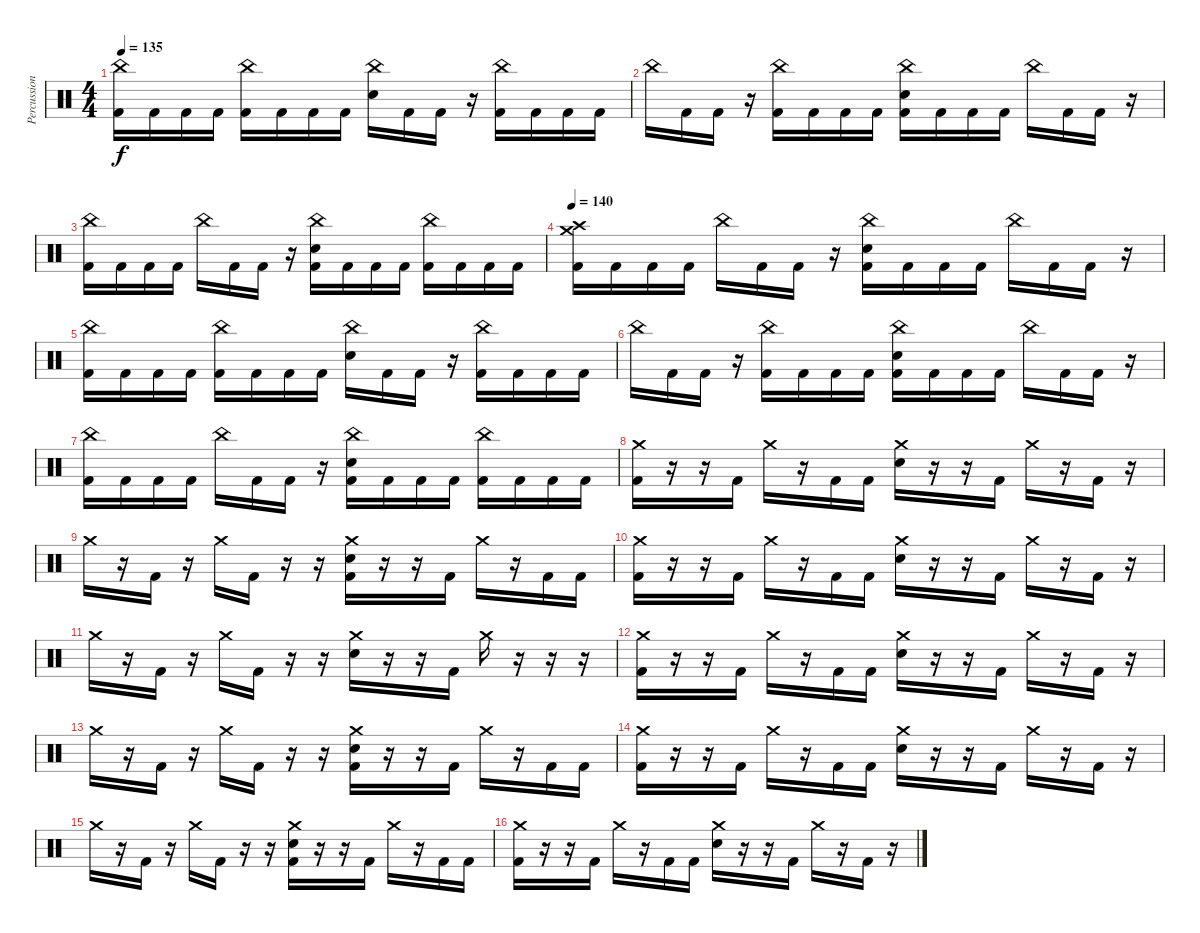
\track ("Percussion" "Percussion") {instrument percussion}
\staff {score}
\articulation defaults
\ts (4 4)
\tempo 135
\clef neutral
\ks c
("China (hit)" "Kick (hit) 2").16{dy f} "Kick (hit) 2".16 "Kick (hit) 2".16 "Kick (hit) 2".16 ("China (hit)" "Kick (hit) 2").16 "Kick (hit) 2".16 "Kick (hit) 2".16 "Kick (hit) 2".16 ("China (hit)" "Electric Snare (hit)").16 "Kick (hit) 2".16 "Kick (hit) 2".16 r.16 ("China (hit)" "Kick (hit) 2").16 "Kick (hit) 2".16 "Kick (hit) 2".16 "Kick (hit) 2".16 |
"China (hit)".16 "Kick (hit) 2".16 "Kick (hit) 2".16 r.16 ("China (hit)" "Kick (hit) 2").16 "Kick (hit) 2".16 "Kick (hit) 2".16 "Kick (hit) 2".16 ("China (hit)" "Electric Snare (hit)" "Kick (hit) 2").16 "Kick (hit) 2".16 "Kick (hit) 2".16 "Kick (hit) 2".16 "China (hit)".16 "Kick (hit) 2".16 "Kick (hit) 2".16 r.16 |
("China (hit)" "Kick (hit) 2").16 "Kick (hit) 2".16 "Kick (hit) 2".16 "Kick (hit) 2".16 "China (hit)".16 "Kick (hit) 2".16 "Kick (hit) 2".16 r.16 ("China (hit)" "Electric Snare (hit)" "Kick (hit) 2").16 "Kick (hit) 2".16 "Kick (hit) 2".16 "Kick (hit) 2".16 ("China (hit)" "Kick (hit) 2").16 "Kick (hit) 2".16 "Kick (hit) 2".16 "Kick (hit) 2".16 |
\tempo 140
("Crash medium (hit)" "Crash high (hit)" "Kick (hit) 2").16 "Kick (hit) 2".16 "Kick (hit) 2".16 "Kick (hit) 2".16 "China (hit)".16 "Kick (hit) 2".16 "Kick (hit) 2".16 r.16 ("China (hit)" "Electric Snare (hit)" "Kick (hit) 2").16 "Kick (hit) 2".16 "Kick (hit) 2".16 "Kick (hit) 2".16 "China (hit)".16 "Kick (hit) 2".16 "Kick (hit) 2".16 r.16 |
("China (hit)" "Kick (hit) 2").16 "Kick (hit) 2".16 "Kick (hit) 2".16 "Kick (hit) 2".16 ("China (hit)" "Kick (hit) 2").16 "Kick (hit) 2".16 "Kick (hit) 2".16 "Kick (hit) 2".16 ("China (hit)" "Electric Snare (hit)").16 "Kick (hit) 2".16 "Kick (hit) 2".16 r.16 ("China (hit)" "Kick (hit) 2").16 "Kick (hit) 2".16 "Kick (hit) 2".16 "Kick (hit) 2".16 |
"China (hit)".16 "Kick (hit) 2".16 "Kick (hit) 2".16 r.16 ("China (hit)" "Kick (hit) 2").16 "Kick (hit) 2".16 "Kick (hit) 2".16 "Kick (hit) 2".16 ("China (hit)" "Electric Snare (hit)" "Kick (hit) 2").16 "Kick (hit) 2".16 "Kick (hit) 2".16 "Kick (hit) 2".16 "China (hit)".16 "Kick (hit) 2".16 "Kick (hit) 2".16 r.16 |
("China (hit)" "Kick (hit) 2").16 "Kick (hit) 2".16 "Kick (hit) 2".16 "Kick (hit) 2".16 "China (hit)".16 "Kick (hit) 2".16 "Kick (hit) 2".16 r.16 ("China (hit)" "Electric Snare (hit)" "Kick (hit) 2").16 "Kick (hit) 2".16 "Kick (hit) 2".16 "Kick (hit) 2".16 ("China (hit)" "Kick (hit) 2").16 "Kick (hit) 2".16 "Kick (hit) 2".16 "Kick (hit) 2".16 |
("Crash medium (hit)" "Kick (hit) 2").16 r.16 r.16 "Kick (hit) 2".16 "Crash medium (hit)".16 r.16 "Kick (hit) 2".16 "Kick (hit) 2".16 ("Crash medium (hit)" "Electric Snare (hit)").16 r.16 r.16 "Kick (hit) 2".16 "Crash medium (hit)".16 r.16 "Kick (hit) 2".16 r.16 |
"Crash medium (hit)".16 r.16 "Kick (hit) 2".16 r.16 "Crash medium (hit)".16 "Kick (hit) 2".16 r.16 r.16 ("Crash medium (hit)" "Electric Snare (hit)" "Kick (hit) 2").16 r.16 r.16 "Kick (hit) 2".16 "Crash medium (hit)".16 r.16 "Kick (hit) 2".16 "Kick (hit) 2".16 |
("Crash medium (hit)" "Kick (hit) 2").16 r.16 r.16 "Kick (hit) 2".16 "Crash medium (hit)".16 r.16 "Kick (hit) 2".16 "Kick (hit) 2".16 ("Crash medium (hit)" "Electric Snare (hit)").16 r.16 r.16 "Kick (hit) 2".16 "Crash medium (hit)".16 r.16 "Kick (hit) 2".16 r.16 |
"Crash medium (hit)".16 r.16 "Kick (hit) 2".16 r.16 "Crash medium (hit)".16 "Kick (hit) 2".16 r.16 r.16 ("Crash medium (hit)" "Electric Snare (hit)").16 r.16 r.16 "Kick (hit) 2".16 "Crash medium (hit)".16 r.16 r.16 r.16 |
("Crash medium (hit)" "Kick (hit) 2").16 r.16 r.16 "Kick (hit) 2".16 "Crash medium (hit)".16 r.16 "Kick (hit) 2".16 "Kick (hit) 2".16 ("Crash medium (hit)" "Electric Snare (hit)").16 r.16 r.16 "Kick (hit) 2".16 "Crash medium (hit)".16 r.16 "Kick (hit) 2".16 r.16 |
"Crash medium (hit)".16 r.16 "Kick (hit) 2".16 r.16 "Crash medium (hit)".16 "Kick (hit) 2".16 r.16 r.16 ("Crash medium (hit)" "Electric Snare (hit)" "Kick (hit) 2").16 r.16 r.16 "Kick (hit) 2".16 "Crash medium (hit)".16 r.16 "Kick (hit) 2".16 "Kick (hit) 2".16 |
("Crash medium (hit)" "Kick (hit) 2").16 r.16 r.16 "Kick (hit) 2".16 "Crash medium (hit)".16 r.16 "Kick (hit) 2".16 "Kick (hit) 2".16 ("Crash medium (hit)" "Electric Snare (hit)").16 r.16 r.16 "Kick (hit) 2".16 "Crash medium (hit)".16 r.16 "Kick (hit) 2".16 r.16 |
"Crash medium (hit)".16 r.16 "Kick (hit) 2".16 r.16 "Crash medium (hit)".16 "Kick (hit) 2".16 r.16 r.16 ("Crash medium (hit)" "Electric Snare (hit)" "Kick (hit) 2").16 r.16 r.16 "Kick (hit) 2".16 "Crash medium (hit)".16 r.16 "Kick (hit) 2".16 "Kick (hit) 2".16 |
("Crash medium (hit)" "Kick (hit) 2").16 r.16 r.16 "Kick (hit) 2".16 "Crash medium (hit)".16 r.16 "Kick (hit) 2".16 "Kick (hit) 2".16 ("Crash medium (hit)" "Electric Snare (hit)").16 r.16 r.16 "Kick (hit) 2".16 "Crash medium (hit)".16 r.16 "Kick (hit) 2".16 r.16
